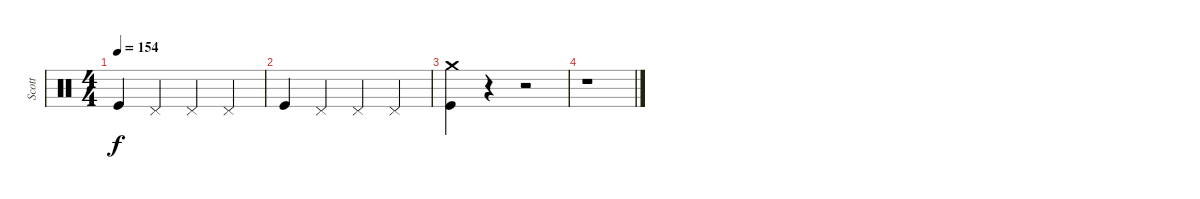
\track ("Scott" "Scott") {instrument percussion}
\staff {score}
\articulation defaults
\ts (4 4)
\tempo 154
\clef neutral
\ks c "Kick (hit)".4{dy f} "Pedal Hi-Hat (hit)".4 "Pedal Hi-Hat (hit)".4 "Pedal Hi-Hat (hit)".4
|
"Kick (hit)".4 "Pedal Hi-Hat (hit)".4 "Pedal Hi-Hat (hit)".4 "Pedal Hi-Hat (hit)".4 |
("Kick (hit)" "Crash medium (hit)").4 r.4 r.2 |
r.1
